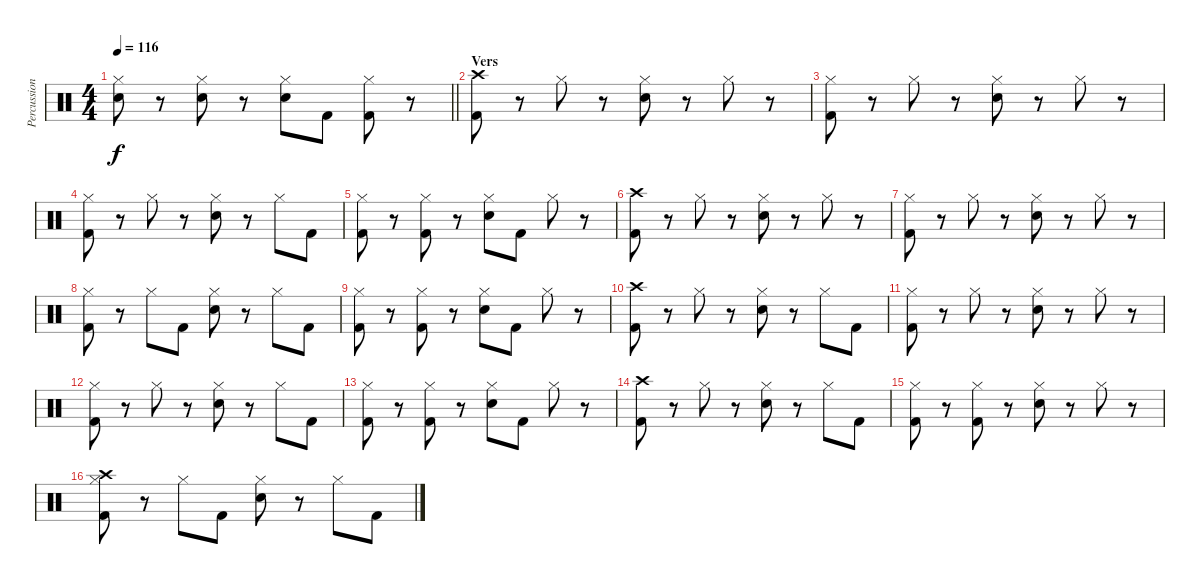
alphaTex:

\track ("Percussion" "Percussion") {instrument percussion}
\staff {score}
\articulation defaults
\ts (4 4)
\tempo 116
\clef neutral
\barLineRight lightlight
\ks c
("Hi-Hat (closed)" "Snare (hit) 2").8{dy f} r.8 ("Hi-Hat (closed)" "Snare (hit) 2").8 r.8 ("Hi-Hat (closed)" "Snare (hit) 2").8 "Kick (hit) 2".8 ("Hi-Hat (closed)" "Kick (hit) 2").8 r.8 |
\section ("" "Vers")
("Crash high (hit)" "Kick (hit) 2").8 r.8 "Hi-Hat (closed)".8 r.8 ("Hi-Hat (closed)" "Snare (hit) 2").8 r.8 "Hi-Hat (closed)".8 r.8 |
("Hi-Hat (closed)" "Kick (hit) 2").8 r.8 "Hi-Hat (closed)".8 r.8 ("Hi-Hat (closed)" "Snare (hit) 2").8 r.8 "Hi-Hat (closed)".8 r.8 |
("Hi-Hat (closed)" "Kick (hit) 2").8 r.8 "Hi-Hat (closed)".8 r.8 ("Hi-Hat (closed)" "Snare (hit) 2").8 r.8 "Hi-Hat (closed)".8 "Kick (hit) 2".8 |
("Hi-Hat (closed)" "Kick (hit) 2").8 r.8 ("Hi-Hat (closed)" "Kick (hit) 2").8 r.8 ("Hi-Hat (closed)" "Snare (hit) 2").8 "Kick (hit) 2".8 "Hi-Hat (closed)".8 r.8 |
("Crash high (hit)" "Kick (hit) 2").8 r.8 "Hi-Hat (closed)".8 r.8 ("Hi-Hat (closed)" "Snare (hit) 2").8 r.8 "Hi-Hat (closed)".8 r.8 |
("Hi-Hat (closed)" "Kick (hit) 2").8 r.8 "Hi-Hat (closed)".8 r.8 ("Hi-Hat (closed)" "Snare (hit) 2").8 r.8 "Hi-Hat (closed)".8 r.8 |
("Hi-Hat (closed)" "Kick (hit) 2").8 r.8 "Hi-Hat (closed)".8 "Kick (hit) 2".8 ("Hi-Hat (closed)" "Snare (hit) 2").8 r.8 "Hi-Hat (closed)".8 "Kick (hit) 2".8 |
("Hi-Hat (closed)" "Kick (hit) 2").8 r.8 ("Hi-Hat (closed)" "Kick (hit) 2").8 r.8 ("Hi-Hat (closed)" "Snare (hit) 2").8 "Kick (hit) 2".8 "Hi-Hat (closed)".8 r.8 |
("Crash high (hit)" "Kick (hit) 2").8 r.8 "Hi-Hat (closed)".8 r.8 ("Hi-Hat (closed)" "Snare (hit) 2").8 r.8 "Hi-Hat (closed)".8 "Kick (hit) 2".8 |
("Hi-Hat (closed)" "Kick (hit) 2").8 r.8 "Hi-Hat (closed)".8 r.8 ("Hi-Hat (closed)" "Snare (hit) 2").8 r.8 "Hi-Hat (closed)".8 r.8 |
("Hi-Hat (closed)" "Kick (hit) 2").8 r.8 "Hi-Hat (closed)".8 r.8 ("Hi-Hat (closed)" "Snare (hit) 2").8 r.8 "Hi-Hat (closed)".8 "Kick (hit) 2".8 |
("Hi-Hat (closed)" "Kick (hit) 2").8 r.8 ("Hi-Hat (closed)" "Kick (hit) 2").8 r.8 ("Hi-Hat (closed)" "Snare (hit) 2").8 "Kick (hit) 2".8 "Hi-Hat (closed)".8 r.8 |
("Crash high (hit)" "Kick (hit) 2").8 r.8 "Hi-Hat (closed)".8 r.8 ("Hi-Hat (closed)" "Snare (hit) 2").8 r.8 "Hi-Hat (closed)".8 "Kick (hit) 2".8 |
("Hi-Hat (closed)" "Kick (hit) 2").8 r.8 ("Hi-Hat (closed)" "Kick (hit) 2").8 r.8 ("Hi-Hat (closed)" "Snare (hit) 2").8 r.8 "Hi-Hat (closed)".8 r.8 |
("Crash high (hit)" "Hi-Hat (closed)" "Kick (hit) 2").8 r.8 "Hi-Hat (closed)".8 "Kick (hit) 2".8 ("Hi-Hat (closed)" "Snare (hit) 2").8 r.8 "Hi-Hat (closed)".8 "Kick (hit) 2".8
